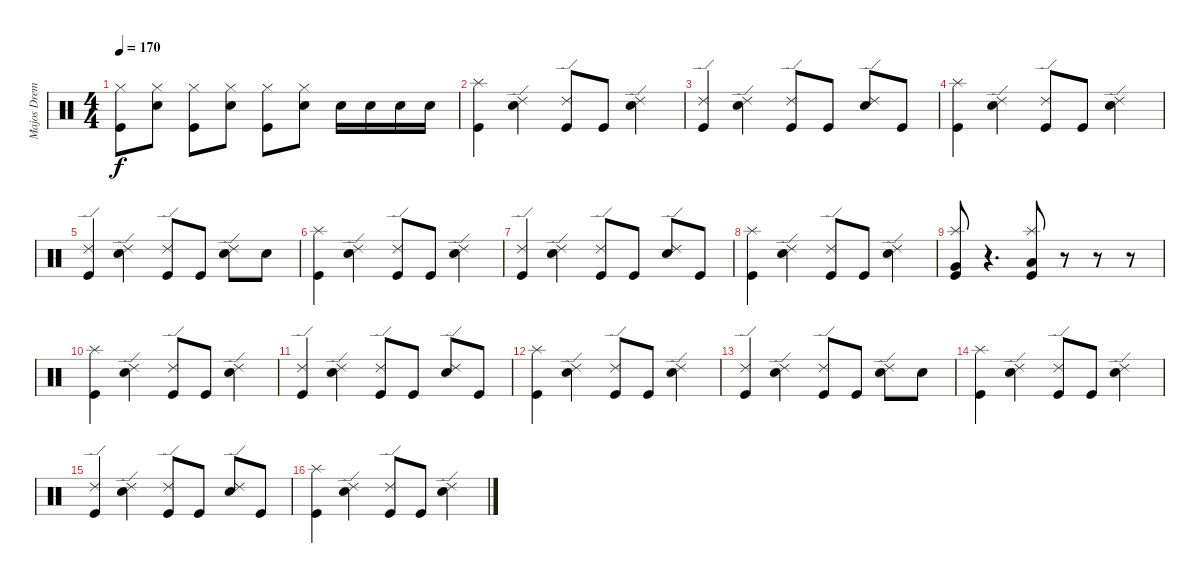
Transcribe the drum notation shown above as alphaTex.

\track ("Majos Dremmelei" "Majos Drem") {instrument percussion}
\staff {score}
\articulation defaults
\ts (4 4)
\tempo 170
\clef neutral
\ks c
("Hi-Hat (closed)" "Kick (hit)").8{dy f} ("Hi-Hat (closed)" "Electric Snare (hit)").8 ("Hi-Hat (closed)" "Kick (hit)").8 ("Hi-Hat (closed)" "Electric Snare (hit)").8 ("Hi-Hat (closed)" "Kick (hit)").8 ("Hi-Hat (closed)" "Electric Snare (hit)").8 "Electric Snare (hit)".16 "Electric Snare (hit)".16 "Electric Snare (hit)".16 "Electric Snare (hit)".16 |
("Splash (hit)" "Kick (hit)").4 ("Ride (edge) 2" "Electric Snare (hit)").4 ("Ride (edge) 2" "Kick (hit)").8 "Kick (hit)".8 ("Ride (edge) 2" "Electric Snare (hit)").4 |
("Ride (edge) 2" "Kick (hit)").4 ("Ride (edge) 2" "Electric Snare (hit)").4 ("Ride (edge) 2" "Kick (hit)").8 "Kick (hit)".8 ("Ride (edge) 2" "Electric Snare (hit)").8 "Kick (hit)".8 |
("Splash (hit)" "Kick (hit)").4 ("Ride (edge) 2" "Electric Snare (hit)").4 ("Ride (edge) 2" "Kick (hit)").8 "Kick (hit)".8 ("Ride (edge) 2" "Electric Snare (hit)").4 |
("Ride (edge) 2" "Kick (hit)").4 ("Ride (edge) 2" "Electric Snare (hit)").4 ("Ride (edge) 2" "Kick (hit)").8 "Kick (hit)".8 ("Ride (edge) 2" "Electric Snare (hit)").8 "Electric Snare (hit)".8 |
("Splash (hit)" "Kick (hit)").4 ("Ride (edge) 2" "Electric Snare (hit)").4 ("Ride (edge) 2" "Kick (hit)").8 "Kick (hit)".8 ("Ride (edge) 2" "Electric Snare (hit)").4 |
("Ride (edge) 2" "Kick (hit)").4 ("Ride (edge) 2" "Electric Snare (hit)").4 ("Ride (edge) 2" "Kick (hit)").8 "Kick (hit)".8 ("Ride (edge) 2" "Electric Snare (hit)").8 "Kick (hit)".8 |
("Splash (hit)" "Kick (hit)").4 ("Ride (edge) 2" "Electric Snare (hit)").4 ("Ride (edge) 2" "Kick (hit)").8 "Kick (hit)".8 ("Ride (edge) 2" "Electric Snare (hit)").4 |
("Splash (hit)" "Very Low Tom (hit)" "Kick (hit)").8 r.4{d} ("Splash (hit)" "Low Tom (hit)" "Kick (hit)").8 r.8 r.8 r.8 |
("Splash (hit)" "Kick (hit)").4 ("Ride (edge) 2" "Electric Snare (hit)").4 ("Ride (edge) 2" "Kick (hit)").8 "Kick (hit)".8 ("Ride (edge) 2" "Electric Snare (hit)").4 |
("Ride (edge) 2" "Kick (hit)").4 ("Ride (edge) 2" "Electric Snare (hit)").4 ("Ride (edge) 2" "Kick (hit)").8 "Kick (hit)".8 ("Ride (edge) 2" "Electric Snare (hit)").8 "Kick (hit)".8 |
("Splash (hit)" "Kick (hit)").4 ("Ride (edge) 2" "Electric Snare (hit)").4 ("Ride (edge) 2" "Kick (hit)").8 "Kick (hit)".8 ("Ride (edge) 2" "Electric Snare (hit)").4 |
("Ride (edge) 2" "Kick (hit)").4 ("Ride (edge) 2" "Electric Snare (hit)").4 ("Ride (edge) 2" "Kick (hit)").8 "Kick (hit)".8 ("Ride (edge) 2" "Electric Snare (hit)").8 "Electric Snare (hit)".8 |
("Splash (hit)" "Kick (hit)").4 ("Ride (edge) 2" "Electric Snare (hit)").4 ("Ride (edge) 2" "Kick (hit)").8 "Kick (hit)".8 ("Ride (edge) 2" "Electric Snare (hit)").4 |
("Ride (edge) 2" "Kick (hit)").4 ("Ride (edge) 2" "Electric Snare (hit)").4 ("Ride (edge) 2" "Kick (hit)").8 "Kick (hit)".8 ("Ride (edge) 2" "Electric Snare (hit)").8 "Kick (hit)".8 |
("Splash (hit)" "Kick (hit)").4 ("Ride (edge) 2" "Electric Snare (hit)").4 ("Ride (edge) 2" "Kick (hit)").8 "Kick (hit)".8 ("Ride (edge) 2" "Electric Snare (hit)").4
